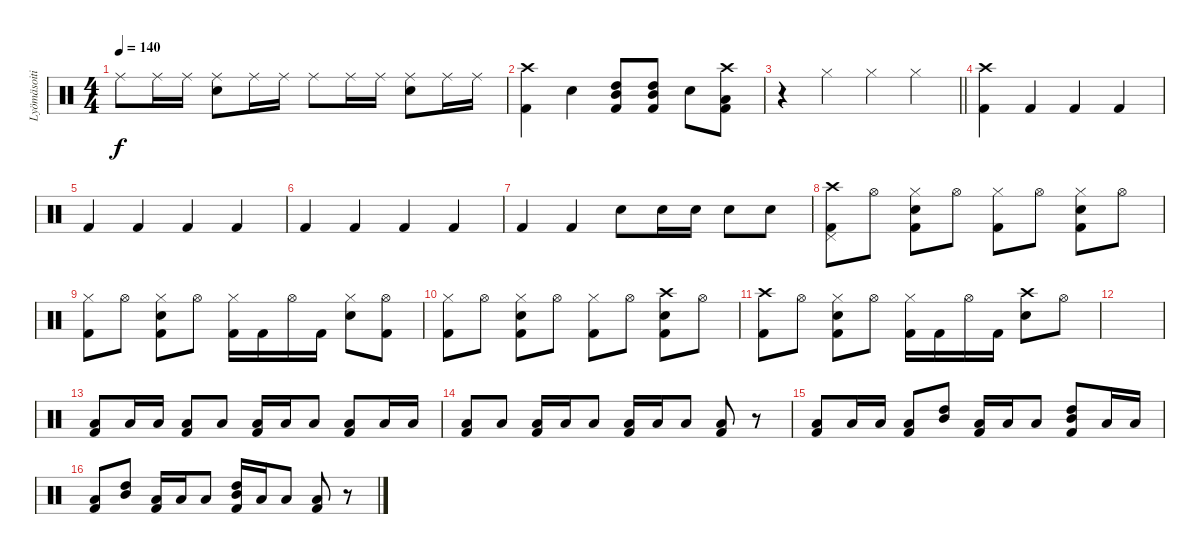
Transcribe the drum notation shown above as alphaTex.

\track ("Lyömäsoitin" "Lyömäsoiti") {instrument percussion}
\staff {score}
\articulation defaults
\ts (4 4)
\tempo 140
\clef neutral
\ks c "Ride (middle)".8{dy f} "Ride (middle)".16 "Ride (middle)".16
("Ride (middle)" "Snare (hit) 2").8 "Ride (middle)".16 "Ride (middle)".16 "Ride (middle)".8 "Ride (middle)".16 "Ride (middle)".16 ("Ride (middle)" "Snare (hit) 2").8 "Ride (middle)".16 "Ride (middle)".16 |
("Crash high (hit)" "Kick (hit) 2").4 "Snare (hit) 2".4 ("Mid Tom (hit)" "High Tom (hit)" "Kick (hit) 2").8 ("High Tom (hit)" "Mid Tom (hit)" "Kick (hit) 2").8 "Snare (hit) 2".8 ("Crash high (hit)" "Low Floor Tom (hit)" "Kick (hit) 2").8 |
\barLineRight lightlight
r.4 "Hi-Hat (closed)".4 "Hi-Hat (closed)".4 "Hi-Hat (closed)".4 |
("Crash high (hit)" "Kick (hit) 2").4 "Kick (hit) 2".4 "Kick (hit) 2".4 "Kick (hit) 2".4 |
"Kick (hit) 2".4 "Kick (hit) 2".4 "Kick (hit) 2".4 "Kick (hit) 2".4 |
"Kick (hit) 2".4 "Kick (hit) 2".4 "Kick (hit) 2".4 "Kick (hit) 2".4 |
"Kick (hit) 2".4 "Kick (hit) 2".4 "Snare (hit) 2".8 "Snare (hit) 2".16 "Snare (hit) 2".16 "Snare (hit) 2".8 "Snare (hit) 2".8 |
("Crash high (hit)" "Pedal Hi-Hat (hit)" "Kick (hit) 2").8 "Hi-Hat (open)".8 ("Hi-Hat (closed)" "Snare (hit) 2" "Kick (hit) 2").8 "Hi-Hat (open)".8 ("Hi-Hat (closed)" "Kick (hit) 2").8 "Hi-Hat (open)".8 ("Hi-Hat (closed)" "Snare (hit) 2" "Kick (hit) 2").8 "Hi-Hat (open)".8 |
("Hi-Hat (closed)" "Kick (hit) 2").8 "Hi-Hat (open)".8 ("Hi-Hat (closed)" "Snare (hit) 2" "Kick (hit) 2").8 "Hi-Hat (open)".8 ("Hi-Hat (closed)" "Kick (hit) 2").16 "Kick (hit) 2".16 "Hi-Hat (open)".16 "Kick (hit) 2".16 ("Hi-Hat (closed)" "Snare (hit) 2").8 ("Hi-Hat (open)" "Kick (hit) 2").8 |
("Hi-Hat (closed)" "Kick (hit) 2").8 "Hi-Hat (open)".8 ("Hi-Hat (closed)" "Snare (hit) 2" "Kick (hit) 2").8 "Hi-Hat (open)".8 ("Hi-Hat (closed)" "Kick (hit) 2").8 "Hi-Hat (open)".8 ("Crash high (hit)" "Snare (hit) 2" "Kick (hit) 2").8 "Hi-Hat (open)".8 |
("Crash high (hit)" "Kick (hit) 2").8 "Hi-Hat (open)".8 ("Hi-Hat (closed)" "Snare (hit) 2" "Kick (hit) 2").8 "Hi-Hat (open)".8 ("Hi-Hat (closed)" "Kick (hit) 2").16 "Kick (hit) 2".16 "Hi-Hat (open)".16 "Kick (hit) 2".16 ("Crash high (hit)" "Snare (hit) 2").8 "Hi-Hat (open)".8 |
|
("Low Floor Tom (hit)" "Kick (hit) 2").8 "Low Floor Tom (hit)".16 "Low Floor Tom (hit)".16 ("Low Floor Tom (hit)" "Kick (hit) 2").8 "Low Floor Tom (hit)".8 ("Low Floor Tom (hit)" "Kick (hit) 2").16 "Low Floor Tom (hit)".16 "Low Floor Tom (hit)".8 ("Low Floor Tom (hit)" "Kick (hit) 2").8 "Low Floor Tom (hit)".16 "Low Floor Tom (hit)".16 |
("Low Floor Tom (hit)" "Kick (hit) 2").8 "Low Floor Tom (hit)".8 ("Low Floor Tom (hit)" "Kick (hit) 2").16 "Low Floor Tom (hit)".16 "Low Floor Tom (hit)".8 ("Low Floor Tom (hit)" "Kick (hit) 2").16 "Low Floor Tom (hit)".16 "Low Floor Tom (hit)".8 ("Low Floor Tom (hit)" "Kick (hit) 2").8 r.8 |
("Low Floor Tom (hit)" "Kick (hit) 2").8 "Low Floor Tom (hit)".16 "Low Floor Tom (hit)".16 ("Low Floor Tom (hit)" "Kick (hit) 2").8 ("High Tom (hit)" "Mid Tom (hit)").8 ("Low Floor Tom (hit)" "Kick (hit) 2").16 "Low Floor Tom (hit)".16 "Low Floor Tom (hit)".8 ("High Tom (hit)" "Mid Tom (hit)" "Kick (hit) 2").8 "Low Floor Tom (hit)".16 "Low Floor Tom (hit)".16 |
("Low Floor Tom (hit)" "Kick (hit) 2").8 ("High Tom (hit)" "Mid Tom (hit)").8 ("Low Floor Tom (hit)" "Kick (hit) 2").16 "Low Floor Tom (hit)".16 "Low Floor Tom (hit)".8 ("High Tom (hit)" "Mid Tom (hit)" "Kick (hit) 2").16 "Low Floor Tom (hit)".16 "Low Floor Tom (hit)".8 ("Low Floor Tom (hit)" "Kick (hit) 2").8 r.8
